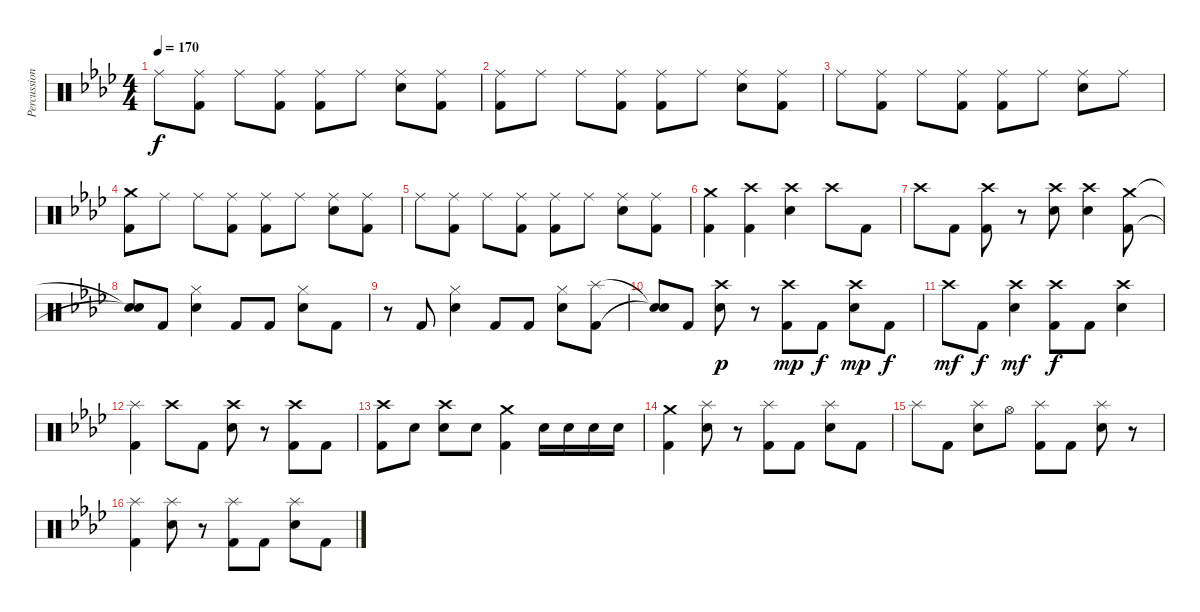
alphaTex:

\track ("Percussion" "Percussion") {instrument percussion}
\staff {score}
\articulation defaults
\ts (4 4)
\tempo 170
\clef neutral
\ks ab "Ride (middle)".8{dy f}
("Ride (middle)" "Kick (hit) 2").8 "Ride (middle)".8 ("Ride (middle)" "Kick (hit) 2").8 ("Ride (middle)" "Kick (hit) 2").8 "Ride (middle)".8 ("Ride (middle)" "Electric Snare (hit)").8 ("Ride (middle)" "Kick (hit) 2").8 |
("Ride (middle)" "Kick (hit) 2").8 "Ride (middle)".8 "Ride (middle)".8 ("Ride (middle)" "Kick (hit) 2").8 ("Ride (middle)" "Kick (hit) 2").8 "Ride (middle)".8 ("Ride (middle)" "Electric Snare (hit)").8 ("Ride (middle)" "Kick (hit) 2").8 |
"Ride (middle)".8 ("Ride (middle)" "Kick (hit) 2").8 "Ride (middle)".8 ("Ride (middle)" "Kick (hit) 2").8 ("Ride (middle)" "Kick (hit) 2").8 "Ride (middle)".8 ("Ride (middle)" "Electric Snare (hit)").8 "Ride (middle)".8 |
("Crash medium (hit)" "Kick (hit) 2").8 "Ride (middle)".8 "Ride (middle)".8 ("Ride (middle)" "Kick (hit) 2").8 ("Ride (middle)" "Kick (hit) 2").8 "Ride (middle)".8 ("Ride (middle)" "Electric Snare (hit)").8 ("Ride (middle)" "Kick (hit) 2").8 |
"Ride (middle)".8 ("Ride (middle)" "Kick (hit) 2").8 "Ride (middle)".8 ("Ride (middle)" "Kick (hit) 2").8 ("Ride (middle)" "Kick (hit) 2").8 "Ride (middle)".8 ("Ride (middle)" "Electric Snare (hit)").8 ("Ride (middle)" "Kick (hit) 2").8 |
("Crash medium (hit)" "Kick (hit) 2").4 ("Crash high (hit)" "Kick (hit) 2").4 ("Crash high (hit)" "Electric Snare (hit)").4 "Crash high (hit)".8 "Kick (hit) 2".8 |
"Crash high (hit)".8 "Kick (hit) 2".8 ("Crash high (hit)" "Kick (hit) 2").8 r.8 ("Crash high (hit)" "Electric Snare (hit)").8 ("Crash high (hit)" "Electric Snare (hit)").4 ("Crash medium (hit)" "Kick (hit) 2").8 |
("Snare (hit)"{t} "Snare (hit)"{t}).8 "Kick (hit) 2".8 ("Hi-Hat (closed)" "Electric Snare (hit)").4 "Kick (hit) 2".8 "Kick (hit) 2".8 ("Hi-Hat (closed)" "Electric Snare (hit)").8 "Kick (hit) 2".8 |
r.8 "Kick (hit) 2".8 ("Hi-Hat (closed)" "Electric Snare (hit)").4 "Kick (hit) 2".8 "Kick (hit) 2".8 ("Hi-Hat (closed)" "Electric Snare (hit)").8 ("Splash (hit)" "Kick (hit) 2").8 |
("Snare (hit)"{t} "Snare (hit)"{t}).8 "Kick (hit) 2".8 ("Crash high (hit)" "Electric Snare (hit)").8{dy p} r.8 ("Crash high (hit)" "Kick (hit) 2").8{dy mp} "Kick (hit) 2".8{dy f} ("Crash high (hit)" "Electric Snare (hit)").8{dy mp} "Kick (hit) 2".8{dy f} |
"Crash high (hit)".8{dy mf} "Kick (hit) 2".8{dy f} ("Crash high (hit)" "Electric Snare (hit)").4{dy mf} ("Crash high (hit)" "Kick (hit) 2").8{dy f} "Kick (hit) 2".8 ("Crash high (hit)" "Electric Snare (hit)").4 |
("Splash (hit)" "Kick (hit) 2").4 "Crash high (hit)".8 "Kick (hit) 2".8 ("Crash high (hit)" "Electric Snare (hit)").8 r.8 ("Crash high (hit)" "Kick (hit) 2").8 "Kick (hit) 2".8 |
("Crash high (hit)" "Kick (hit) 2").8 "Electric Snare (hit)".8 ("Crash high (hit)" "Electric Snare (hit)").8 "Electric Snare (hit)".8 ("Crash medium (hit)" "Kick (hit) 2").4 "Electric Snare (hit)".16 "Electric Snare (hit)".16 "Electric Snare (hit)".16 "Electric Snare (hit)".16 |
("Crash medium (hit)" "Kick (hit) 2").4 ("Splash (hit)" "Electric Snare (hit)").8 r.8 ("Splash (hit)" "Kick (hit) 2").8 "Kick (hit) 2".8 ("Splash (hit)" "Electric Snare (hit)").8 "Kick (hit) 2".8 |
"Splash (hit)".8 "Kick (hit) 2".8 ("Splash (hit)" "Electric Snare (hit)").8 "Hi-Hat (open)".8 ("Splash (hit)" "Kick (hit) 2").8 "Kick (hit) 2".8 ("Splash (hit)" "Electric Snare (hit)").8 r.8 |
("Splash (hit)" "Kick (hit) 2").4 ("Splash (hit)" "Electric Snare (hit)").8 r.8 ("Splash (hit)" "Kick (hit) 2").8 "Kick (hit) 2".8 ("Splash (hit)" "Electric Snare (hit)").8 "Kick (hit) 2".8
